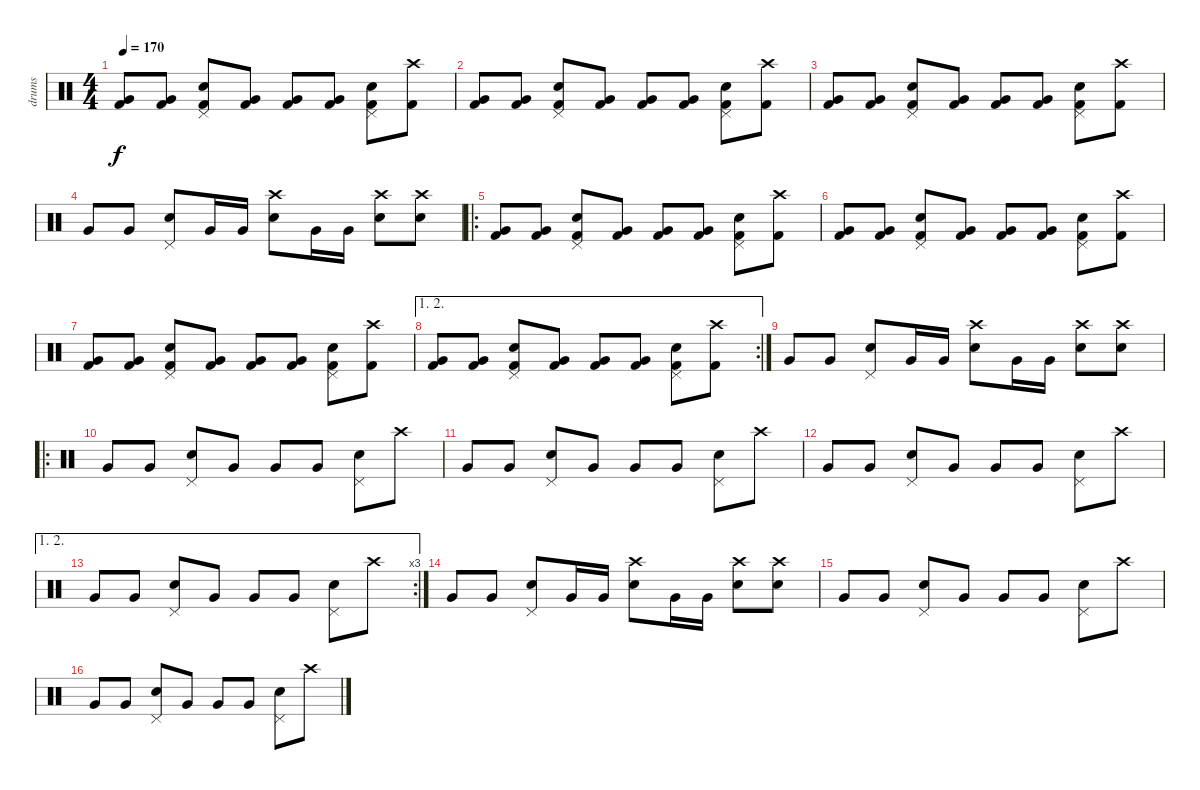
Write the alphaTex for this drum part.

\track ("drums" "drums") {instrument percussion}
\staff {score}
\articulation defaults
\ts (4 4)
\tempo 170
\clef neutral
\ks c
("Very Low Tom (hit)" "Kick (hit) 2").8{dy f} ("Very Low Tom (hit)" "Kick (hit) 2").8 ("Snare (hit) 2" "Pedal Hi-Hat (hit)" "Kick (hit) 2").8 ("Very Low Tom (hit)" "Kick (hit) 2").8 ("Very Low Tom (hit)" "Kick (hit) 2").8 ("Very Low Tom (hit)" "Kick (hit) 2").8 ("Snare (hit) 2" "Pedal Hi-Hat (hit)" "Kick (hit) 2").8 ("Crash high (hit)" "Kick (hit) 2").8 |
("Very Low Tom (hit)" "Kick (hit) 2").8 ("Very Low Tom (hit)" "Kick (hit) 2").8 ("Snare (hit) 2" "Pedal Hi-Hat (hit)" "Kick (hit) 2").8 ("Very Low Tom (hit)" "Kick (hit) 2").8 ("Very Low Tom (hit)" "Kick (hit) 2").8 ("Very Low Tom (hit)" "Kick (hit) 2").8 ("Snare (hit) 2" "Pedal Hi-Hat (hit)" "Kick (hit) 2").8 ("Crash high (hit)" "Kick (hit) 2").8 |
("Very Low Tom (hit)" "Kick (hit) 2").8 ("Very Low Tom (hit)" "Kick (hit) 2").8 ("Snare (hit) 2" "Pedal Hi-Hat (hit)" "Kick (hit) 2").8 ("Very Low Tom (hit)" "Kick (hit) 2").8 ("Very Low Tom (hit)" "Kick (hit) 2").8 ("Very Low Tom (hit)" "Kick (hit) 2").8 ("Snare (hit) 2" "Pedal Hi-Hat (hit)" "Kick (hit) 2").8 ("Crash high (hit)" "Kick (hit) 2").8 |
"Very Low Tom (hit)".8 "Very Low Tom (hit)".8 ("Snare (hit) 2" "Pedal Hi-Hat (hit)").8 "Very Low Tom (hit)".16 "Very Low Tom (hit)".16 ("Snare (hit) 2" "Crash high (hit)").8 "Very Low Tom (hit)".16 "Very Low Tom (hit)".16 ("Snare (hit) 2" "Crash high (hit)").8 ("Snare (hit) 2" "Crash high (hit)").8 |
\ro
("Very Low Tom (hit)" "Kick (hit) 2").8 ("Very Low Tom (hit)" "Kick (hit) 2").8 ("Snare (hit) 2" "Pedal Hi-Hat (hit)" "Kick (hit) 2").8 ("Very Low Tom (hit)" "Kick (hit) 2").8 ("Very Low Tom (hit)" "Kick (hit) 2").8 ("Very Low Tom (hit)" "Kick (hit) 2").8 ("Snare (hit) 2" "Pedal Hi-Hat (hit)" "Kick (hit) 2").8 ("Crash high (hit)" "Kick (hit) 2").8 |
("Very Low Tom (hit)" "Kick (hit) 2").8 ("Very Low Tom (hit)" "Kick (hit) 2").8 ("Snare (hit) 2" "Pedal Hi-Hat (hit)" "Kick (hit) 2").8 ("Very Low Tom (hit)" "Kick (hit) 2").8 ("Very Low Tom (hit)" "Kick (hit) 2").8 ("Very Low Tom (hit)" "Kick (hit) 2").8 ("Snare (hit) 2" "Pedal Hi-Hat (hit)" "Kick (hit) 2").8 ("Crash high (hit)" "Kick (hit) 2").8 |
("Very Low Tom (hit)" "Kick (hit) 2").8 ("Very Low Tom (hit)" "Kick (hit) 2").8 ("Snare (hit) 2" "Pedal Hi-Hat (hit)" "Kick (hit) 2").8 ("Very Low Tom (hit)" "Kick (hit) 2").8 ("Very Low Tom (hit)" "Kick (hit) 2").8 ("Very Low Tom (hit)" "Kick (hit) 2").8 ("Snare (hit) 2" "Pedal Hi-Hat (hit)" "Kick (hit) 2").8 ("Crash high (hit)" "Kick (hit) 2").8 |
\ae (1 2)
\rc 2
("Very Low Tom (hit)" "Kick (hit) 2").8 ("Very Low Tom (hit)" "Kick (hit) 2").8 ("Snare (hit) 2" "Pedal Hi-Hat (hit)" "Kick (hit) 2").8 ("Very Low Tom (hit)" "Kick (hit) 2").8 ("Very Low Tom (hit)" "Kick (hit) 2").8 ("Very Low Tom (hit)" "Kick (hit) 2").8 ("Snare (hit) 2" "Pedal Hi-Hat (hit)" "Kick (hit) 2").8 ("Crash high (hit)" "Kick (hit) 2").8 |
"Very Low Tom (hit)".8 "Very Low Tom (hit)".8 ("Snare (hit) 2" "Pedal Hi-Hat (hit)").8 "Very Low Tom (hit)".16 "Very Low Tom (hit)".16 ("Snare (hit) 2" "Crash high (hit)").8 "Very Low Tom (hit)".16 "Very Low Tom (hit)".16 ("Snare (hit) 2" "Crash high (hit)").8 ("Snare (hit) 2" "Crash high (hit)").8 |
\ro "Very Low Tom (hit)".8 "Very Low Tom (hit)".8
("Snare (hit) 2" "Pedal Hi-Hat (hit)").8 "Very Low Tom (hit)".8 "Very Low Tom (hit)".8 "Very Low Tom (hit)".8 ("Snare (hit) 2" "Pedal Hi-Hat (hit)").8 "Crash high (hit)".8 |
"Very Low Tom (hit)".8 "Very Low Tom (hit)".8 ("Snare (hit) 2" "Pedal Hi-Hat (hit)").8 "Very Low Tom (hit)".8 "Very Low Tom (hit)".8 "Very Low Tom (hit)".8 ("Snare (hit) 2" "Pedal Hi-Hat (hit)").8 "Crash high (hit)".8 |
"Very Low Tom (hit)".8 "Very Low Tom (hit)".8 ("Snare (hit) 2" "Pedal Hi-Hat (hit)").8 "Very Low Tom (hit)".8 "Very Low Tom (hit)".8 "Very Low Tom (hit)".8 ("Snare (hit) 2" "Pedal Hi-Hat (hit)").8 "Crash high (hit)".8 |
\ae (1 2)
\rc 3 "Very Low Tom (hit)".8 "Very Low Tom (hit)".8
("Snare (hit) 2" "Pedal Hi-Hat (hit)").8 "Very Low Tom (hit)".8 "Very Low Tom (hit)".8 "Very Low Tom (hit)".8 ("Snare (hit) 2" "Pedal Hi-Hat (hit)").8 "Crash high (hit)".8 |
"Very Low Tom (hit)".8 "Very Low Tom (hit)".8 ("Snare (hit) 2" "Pedal Hi-Hat (hit)").8 "Very Low Tom (hit)".16 "Very Low Tom (hit)".16 ("Snare (hit) 2" "Crash high (hit)").8 "Very Low Tom (hit)".16 "Very Low Tom (hit)".16 ("Snare (hit) 2" "Crash high (hit)").8 ("Snare (hit) 2" "Crash high (hit)").8 |
"Very Low Tom (hit)".8 "Very Low Tom (hit)".8 ("Snare (hit) 2" "Pedal Hi-Hat (hit)").8 "Very Low Tom (hit)".8 "Very Low Tom (hit)".8 "Very Low Tom (hit)".8 ("Snare (hit) 2" "Pedal Hi-Hat (hit)").8 "Crash high (hit)".8 |
"Very Low Tom (hit)".8 "Very Low Tom (hit)".8 ("Snare (hit) 2" "Pedal Hi-Hat (hit)").8 "Very Low Tom (hit)".8 "Very Low Tom (hit)".8 "Very Low Tom (hit)".8 ("Snare (hit) 2" "Pedal Hi-Hat (hit)").8 "Crash high (hit)".8
